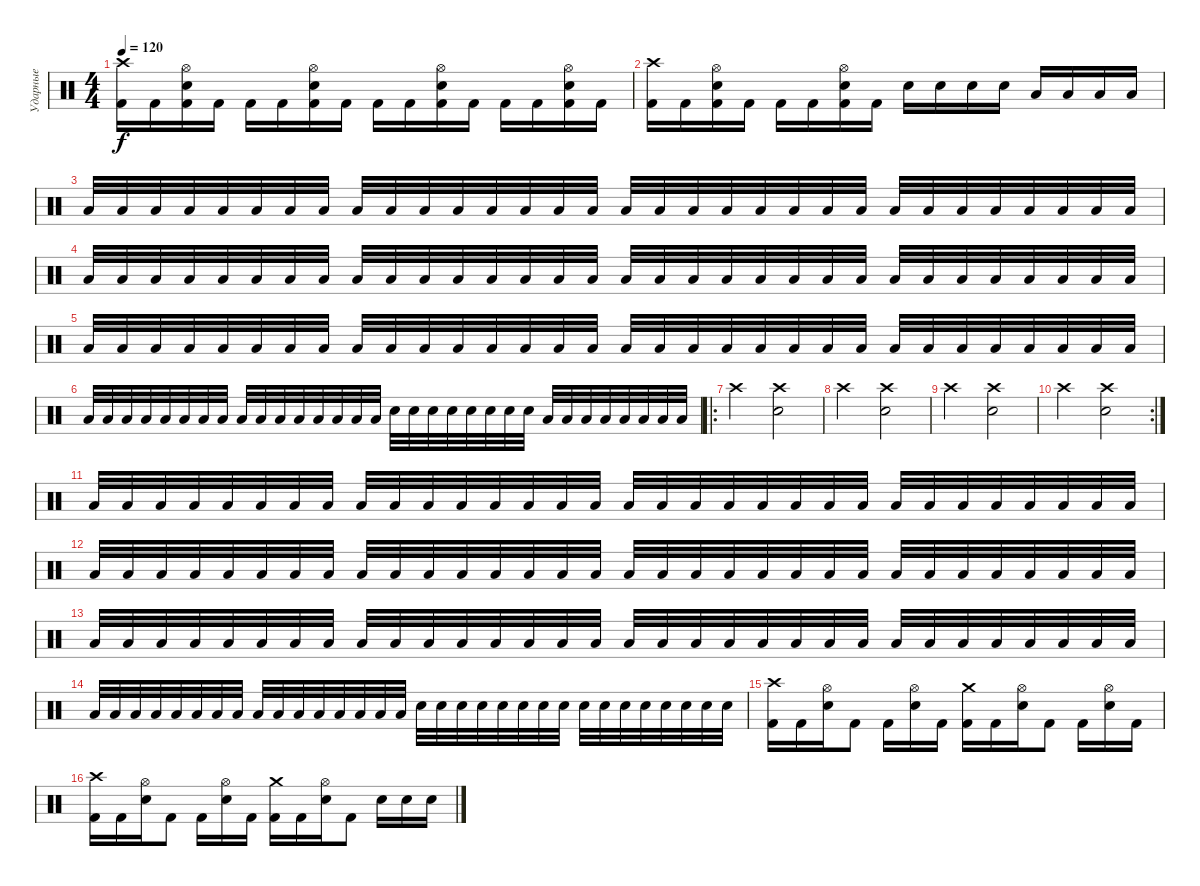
\track ("Ударные" "Ударные") {instrument percussion}
\staff {score}
\articulation defaults
\ts (4 4)
\tempo 120
\clef neutral
\ks c
("Kick (hit) 2" "Crash high (hit)").16{dy f} "Kick (hit) 2".16 ("Kick (hit) 2" "Electric Snare (hit)" "Hi-Hat (open)").16 "Kick (hit) 2".16 "Kick (hit) 2".16 "Kick (hit) 2".16 ("Kick (hit) 2" "Electric Snare (hit)" "Hi-Hat (open)").16 "Kick (hit) 2".16 "Kick (hit) 2".16 "Kick (hit) 2".16 ("Kick (hit) 2" "Electric Snare (hit)" "Hi-Hat (open)").16 "Kick (hit) 2".16 "Kick (hit) 2".16 "Kick (hit) 2".16 ("Kick (hit) 2" "Electric Snare (hit)" "Hi-Hat (open)").16 "Kick (hit) 2".16 |
("Kick (hit) 2" "Crash high (hit)").16 "Kick (hit) 2".16 ("Kick (hit) 2" "Electric Snare (hit)" "Hi-Hat (open)").16 "Kick (hit) 2".16 "Kick (hit) 2".16 "Kick (hit) 2".16 ("Kick (hit) 2" "Electric Snare (hit)" "Hi-Hat (open)").16 "Kick (hit) 2".16 "Electric Snare (hit)".16 "Electric Snare (hit)".16 "Electric Snare (hit)".16 "Electric Snare (hit)".16 "Low Tom (hit)".16 "Low Tom (hit)".16 "Low Tom (hit)".16 "Low Tom (hit)".16 |
"Low Tom (hit)".32 "Low Tom (hit)".32 "Low Tom (hit)".32 "Low Tom (hit)".32 "Low Tom (hit)".32 "Low Tom (hit)".32 "Low Tom (hit)".32 "Low Tom (hit)".32 "Low Tom (hit)".32 "Low Tom (hit)".32 "Low Tom (hit)".32 "Low Tom (hit)".32 "Low Tom (hit)".32 "Low Tom (hit)".32 "Low Tom (hit)".32 "Low Tom (hit)".32 "Low Tom (hit)".32 "Low Tom (hit)".32 "Low Tom (hit)".32 "Low Tom (hit)".32 "Low Tom (hit)".32 "Low Tom (hit)".32 "Low Tom (hit)".32 "Low Tom (hit)".32 "Low Tom (hit)".32 "Low Tom (hit)".32 "Low Tom (hit)".32 "Low Tom (hit)".32 "Low Tom (hit)".32 "Low Tom (hit)".32 "Low Tom (hit)".32 "Low Tom (hit)".32 |
"Low Tom (hit)".32 "Low Tom (hit)".32 "Low Tom (hit)".32 "Low Tom (hit)".32 "Low Tom (hit)".32 "Low Tom (hit)".32 "Low Tom (hit)".32 "Low Tom (hit)".32 "Low Tom (hit)".32 "Low Tom (hit)".32 "Low Tom (hit)".32 "Low Tom (hit)".32 "Low Tom (hit)".32 "Low Tom (hit)".32 "Low Tom (hit)".32 "Low Tom (hit)".32 "Low Tom (hit)".32 "Low Tom (hit)".32 "Low Tom (hit)".32 "Low Tom (hit)".32 "Low Tom (hit)".32 "Low Tom (hit)".32 "Low Tom (hit)".32 "Low Tom (hit)".32 "Low Tom (hit)".32 "Low Tom (hit)".32 "Low Tom (hit)".32 "Low Tom (hit)".32 "Low Tom (hit)".32 "Low Tom (hit)".32 "Low Tom (hit)".32 "Low Tom (hit)".32 |
"Low Tom (hit)".32 "Low Tom (hit)".32 "Low Tom (hit)".32 "Low Tom (hit)".32 "Low Tom (hit)".32 "Low Tom (hit)".32 "Low Tom (hit)".32 "Low Tom (hit)".32 "Low Tom (hit)".32 "Low Tom (hit)".32 "Low Tom (hit)".32 "Low Tom (hit)".32 "Low Tom (hit)".32 "Low Tom (hit)".32 "Low Tom (hit)".32 "Low Tom (hit)".32 "Low Tom (hit)".32 "Low Tom (hit)".32 "Low Tom (hit)".32 "Low Tom (hit)".32 "Low Tom (hit)".32 "Low Tom (hit)".32 "Low Tom (hit)".32 "Low Tom (hit)".32 "Low Tom (hit)".32 "Low Tom (hit)".32 "Low Tom (hit)".32 "Low Tom (hit)".32 "Low Tom (hit)".32 "Low Tom (hit)".32 "Low Tom (hit)".32 "Low Tom (hit)".32 |
"Low Tom (hit)".32 "Low Tom (hit)".32 "Low Tom (hit)".32 "Low Tom (hit)".32 "Low Tom (hit)".32 "Low Tom (hit)".32 "Low Tom (hit)".32 "Low Tom (hit)".32 "Low Tom (hit)".32 "Low Tom (hit)".32 "Low Tom (hit)".32 "Low Tom (hit)".32 "Low Tom (hit)".32 "Low Tom (hit)".32 "Low Tom (hit)".32 "Low Tom (hit)".32 "Electric Snare (hit)".32 "Electric Snare (hit)".32 "Electric Snare (hit)".32 "Electric Snare (hit)".32 "Electric Snare (hit)".32 "Electric Snare (hit)".32 "Electric Snare (hit)".32 "Electric Snare (hit)".32 "Low Tom (hit)".32 "Low Tom (hit)".32 "Low Tom (hit)".32 "Low Tom (hit)".32 "Low Tom (hit)".32 "Low Tom (hit)".32 "Low Tom (hit)".32 "Low Tom (hit)".32 |
\ro "Crash high (hit)".2
("Crash high (hit)" "Electric Snare (hit)").2 |
"Crash high (hit)".2 ("Crash high (hit)" "Electric Snare (hit)").2 |
"Crash high (hit)".2 ("Crash high (hit)" "Electric Snare (hit)").2 |
\rc 2 "Crash high (hit)".2
("Crash high (hit)" "Electric Snare (hit)").2 |
"Low Tom (hit)".32 "Low Tom (hit)".32 "Low Tom (hit)".32 "Low Tom (hit)".32 "Low Tom (hit)".32 "Low Tom (hit)".32 "Low Tom (hit)".32 "Low Tom (hit)".32 "Low Tom (hit)".32 "Low Tom (hit)".32 "Low Tom (hit)".32 "Low Tom (hit)".32 "Low Tom (hit)".32 "Low Tom (hit)".32 "Low Tom (hit)".32 "Low Tom (hit)".32 "Low Tom (hit)".32 "Low Tom (hit)".32 "Low Tom (hit)".32 "Low Tom (hit)".32 "Low Tom (hit)".32 "Low Tom (hit)".32 "Low Tom (hit)".32 "Low Tom (hit)".32 "Low Tom (hit)".32 "Low Tom (hit)".32 "Low Tom (hit)".32 "Low Tom (hit)".32 "Low Tom (hit)".32 "Low Tom (hit)".32 "Low Tom (hit)".32 "Low Tom (hit)".32 |
"Low Tom (hit)".32 "Low Tom (hit)".32 "Low Tom (hit)".32 "Low Tom (hit)".32 "Low Tom (hit)".32 "Low Tom (hit)".32 "Low Tom (hit)".32 "Low Tom (hit)".32 "Low Tom (hit)".32 "Low Tom (hit)".32 "Low Tom (hit)".32 "Low Tom (hit)".32 "Low Tom (hit)".32 "Low Tom (hit)".32 "Low Tom (hit)".32 "Low Tom (hit)".32 "Low Tom (hit)".32 "Low Tom (hit)".32 "Low Tom (hit)".32 "Low Tom (hit)".32 "Low Tom (hit)".32 "Low Tom (hit)".32 "Low Tom (hit)".32 "Low Tom (hit)".32 "Low Tom (hit)".32 "Low Tom (hit)".32 "Low Tom (hit)".32 "Low Tom (hit)".32 "Low Tom (hit)".32 "Low Tom (hit)".32 "Low Tom (hit)".32 "Low Tom (hit)".32 |
"Low Tom (hit)".32 "Low Tom (hit)".32 "Low Tom (hit)".32 "Low Tom (hit)".32 "Low Tom (hit)".32 "Low Tom (hit)".32 "Low Tom (hit)".32 "Low Tom (hit)".32 "Low Tom (hit)".32 "Low Tom (hit)".32 "Low Tom (hit)".32 "Low Tom (hit)".32 "Low Tom (hit)".32 "Low Tom (hit)".32 "Low Tom (hit)".32 "Low Tom (hit)".32 "Low Tom (hit)".32 "Low Tom (hit)".32 "Low Tom (hit)".32 "Low Tom (hit)".32 "Low Tom (hit)".32 "Low Tom (hit)".32 "Low Tom (hit)".32 "Low Tom (hit)".32 "Low Tom (hit)".32 "Low Tom (hit)".32 "Low Tom (hit)".32 "Low Tom (hit)".32 "Low Tom (hit)".32 "Low Tom (hit)".32 "Low Tom (hit)".32 "Low Tom (hit)".32 |
"Low Tom (hit)".32 "Low Tom (hit)".32 "Low Tom (hit)".32 "Low Tom (hit)".32 "Low Tom (hit)".32 "Low Tom (hit)".32 "Low Tom (hit)".32 "Low Tom (hit)".32 "Low Tom (hit)".32 "Low Tom (hit)".32 "Low Tom (hit)".32 "Low Tom (hit)".32 "Low Tom (hit)".32 "Low Tom (hit)".32 "Low Tom (hit)".32 "Low Tom (hit)".32 "Electric Snare (hit)".32 "Electric Snare (hit)".32 "Electric Snare (hit)".32 "Electric Snare (hit)".32 "Electric Snare (hit)".32 "Electric Snare (hit)".32 "Electric Snare (hit)".32 "Electric Snare (hit)".32 "Electric Snare (hit)".32 "Electric Snare (hit)".32 "Electric Snare (hit)".32 "Electric Snare (hit)".32 "Electric Snare (hit)".32 "Electric Snare (hit)".32 "Electric Snare (hit)".32 "Electric Snare (hit)".32 |
("Kick (hit) 2" "Crash high (hit)").16 "Kick (hit) 2".16 ("Electric Snare (hit)" "Hi-Hat (open)").16 "Kick (hit) 2".8 "Kick (hit) 2".16 ("Electric Snare (hit)" "Hi-Hat (open)").16 "Kick (hit) 2".16 ("Kick (hit) 2" "Crash medium (hit)").16 "Kick (hit) 2".16 ("Electric Snare (hit)" "Hi-Hat (open)").16 "Kick (hit) 2".8 "Kick (hit) 2".16 ("Electric Snare (hit)" "Hi-Hat (open)").16 "Kick (hit) 2".16 |
("Kick (hit) 2" "Crash high (hit)").16 "Kick (hit) 2".16 ("Electric Snare (hit)" "Hi-Hat (open)").16 "Kick (hit) 2".8 "Kick (hit) 2".16 ("Electric Snare (hit)" "Hi-Hat (open)").16 "Kick (hit) 2".16 ("Kick (hit) 2" "Crash medium (hit)").16 "Kick (hit) 2".16 ("Electric Snare (hit)" "Hi-Hat (open)").16 "Kick (hit) 2".8 "Electric Snare (hit)".16 "Electric Snare (hit)".16 "Electric Snare (hit)".16
